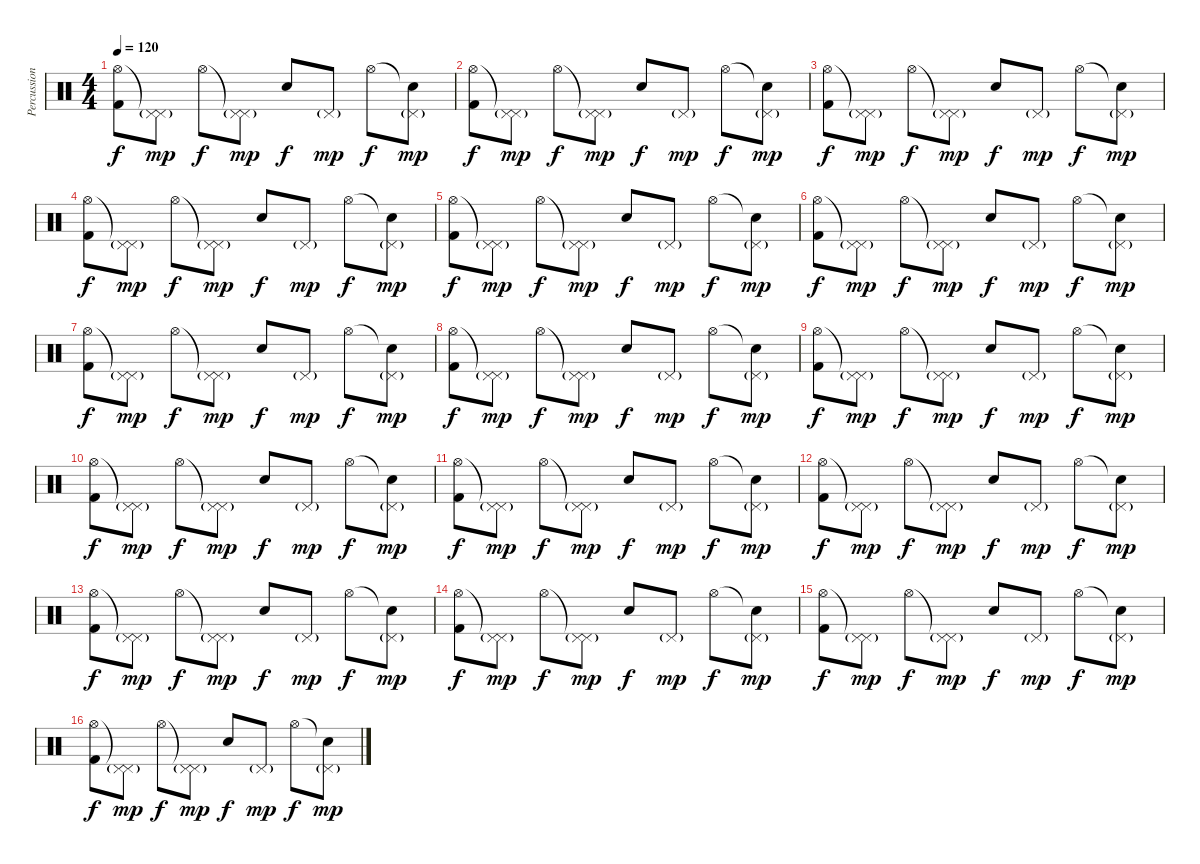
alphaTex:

\track ("Percussion" "Percussion") {instrument percussion}
\staff {score}
\articulation defaults
\ts (4 4)
\tempo 120
\clef neutral
\ks c
("Hi-Hat (open)" "Kick (hit) 2").8{dy f} ("Pedal Hi-Hat (hit)"{t} "Pedal Hi-Hat (hit)"{g}).8{dy mp} "Hi-Hat (open)".8{dy f} ("Pedal Hi-Hat (hit)"{t} "Pedal Hi-Hat (hit)"{g}).8{dy mp} "Snare (hit) 2".8{dy f} "Pedal Hi-Hat (hit)"{g}.8{dy mp} "Hi-Hat (open)".8{dy f} ("Snare (hit)"{t} "Pedal Hi-Hat (hit)"{g}).8{dy mp} |
("Hi-Hat (open)" "Kick (hit) 2").8{dy f} ("Pedal Hi-Hat (hit)"{t} "Pedal Hi-Hat (hit)"{g}).8{dy mp} "Hi-Hat (open)".8{dy f} ("Pedal Hi-Hat (hit)"{t} "Pedal Hi-Hat (hit)"{g}).8{dy mp} "Snare (hit) 2".8{dy f} "Pedal Hi-Hat (hit)"{g}.8{dy mp} "Hi-Hat (open)".8{dy f} ("Snare (hit)"{t} "Pedal Hi-Hat (hit)"{g}).8{dy mp} |
("Hi-Hat (open)" "Kick (hit) 2").8{dy f} ("Pedal Hi-Hat (hit)"{t} "Pedal Hi-Hat (hit)"{g}).8{dy mp} "Hi-Hat (open)".8{dy f} ("Pedal Hi-Hat (hit)"{t} "Pedal Hi-Hat (hit)"{g}).8{dy mp} "Snare (hit) 2".8{dy f} "Pedal Hi-Hat (hit)"{g}.8{dy mp} "Hi-Hat (open)".8{dy f} ("Snare (hit)"{t} "Pedal Hi-Hat (hit)"{g}).8{dy mp} |
("Hi-Hat (open)" "Kick (hit) 2").8{dy f} ("Pedal Hi-Hat (hit)"{t} "Pedal Hi-Hat (hit)"{g}).8{dy mp} "Hi-Hat (open)".8{dy f} ("Pedal Hi-Hat (hit)"{t} "Pedal Hi-Hat (hit)"{g}).8{dy mp} "Snare (hit) 2".8{dy f} "Pedal Hi-Hat (hit)"{g}.8{dy mp} "Hi-Hat (open)".8{dy f} ("Snare (hit)"{t} "Pedal Hi-Hat (hit)"{g}).8{dy mp} |
("Hi-Hat (open)" "Kick (hit) 2").8{dy f} ("Pedal Hi-Hat (hit)"{t} "Pedal Hi-Hat (hit)"{g}).8{dy mp} "Hi-Hat (open)".8{dy f} ("Pedal Hi-Hat (hit)"{t} "Pedal Hi-Hat (hit)"{g}).8{dy mp} "Snare (hit) 2".8{dy f} "Pedal Hi-Hat (hit)"{g}.8{dy mp} "Hi-Hat (open)".8{dy f} ("Snare (hit)"{t} "Pedal Hi-Hat (hit)"{g}).8{dy mp} |
("Hi-Hat (open)" "Kick (hit) 2").8{dy f} ("Pedal Hi-Hat (hit)"{t} "Pedal Hi-Hat (hit)"{g}).8{dy mp} "Hi-Hat (open)".8{dy f} ("Pedal Hi-Hat (hit)"{t} "Pedal Hi-Hat (hit)"{g}).8{dy mp} "Snare (hit) 2".8{dy f} "Pedal Hi-Hat (hit)"{g}.8{dy mp} "Hi-Hat (open)".8{dy f} ("Snare (hit)"{t} "Pedal Hi-Hat (hit)"{g}).8{dy mp} |
("Hi-Hat (open)" "Kick (hit) 2").8{dy f} ("Pedal Hi-Hat (hit)"{t} "Pedal Hi-Hat (hit)"{g}).8{dy mp} "Hi-Hat (open)".8{dy f} ("Pedal Hi-Hat (hit)"{t} "Pedal Hi-Hat (hit)"{g}).8{dy mp} "Snare (hit) 2".8{dy f} "Pedal Hi-Hat (hit)"{g}.8{dy mp} "Hi-Hat (open)".8{dy f} ("Snare (hit)"{t} "Pedal Hi-Hat (hit)"{g}).8{dy mp} |
("Hi-Hat (open)" "Kick (hit) 2").8{dy f} ("Pedal Hi-Hat (hit)"{t} "Pedal Hi-Hat (hit)"{g}).8{dy mp} "Hi-Hat (open)".8{dy f} ("Pedal Hi-Hat (hit)"{t} "Pedal Hi-Hat (hit)"{g}).8{dy mp} "Snare (hit) 2".8{dy f} "Pedal Hi-Hat (hit)"{g}.8{dy mp} "Hi-Hat (open)".8{dy f} ("Snare (hit)"{t} "Pedal Hi-Hat (hit)"{g}).8{dy mp} |
("Hi-Hat (open)" "Kick (hit) 2").8{dy f} ("Pedal Hi-Hat (hit)"{t} "Pedal Hi-Hat (hit)"{g}).8{dy mp} "Hi-Hat (open)".8{dy f} ("Pedal Hi-Hat (hit)"{t} "Pedal Hi-Hat (hit)"{g}).8{dy mp} "Snare (hit) 2".8{dy f} "Pedal Hi-Hat (hit)"{g}.8{dy mp} "Hi-Hat (open)".8{dy f} ("Snare (hit)"{t} "Pedal Hi-Hat (hit)"{g}).8{dy mp} |
("Hi-Hat (open)" "Kick (hit) 2").8{dy f} ("Pedal Hi-Hat (hit)"{t} "Pedal Hi-Hat (hit)"{g}).8{dy mp} "Hi-Hat (open)".8{dy f} ("Pedal Hi-Hat (hit)"{t} "Pedal Hi-Hat (hit)"{g}).8{dy mp} "Snare (hit) 2".8{dy f} "Pedal Hi-Hat (hit)"{g}.8{dy mp} "Hi-Hat (open)".8{dy f} ("Snare (hit)"{t} "Pedal Hi-Hat (hit)"{g}).8{dy mp} |
("Hi-Hat (open)" "Kick (hit) 2").8{dy f} ("Pedal Hi-Hat (hit)"{t} "Pedal Hi-Hat (hit)"{g}).8{dy mp} "Hi-Hat (open)".8{dy f} ("Pedal Hi-Hat (hit)"{t} "Pedal Hi-Hat (hit)"{g}).8{dy mp} "Snare (hit) 2".8{dy f} "Pedal Hi-Hat (hit)"{g}.8{dy mp} "Hi-Hat (open)".8{dy f} ("Snare (hit)"{t} "Pedal Hi-Hat (hit)"{g}).8{dy mp} |
("Hi-Hat (open)" "Kick (hit) 2").8{dy f} ("Pedal Hi-Hat (hit)"{t} "Pedal Hi-Hat (hit)"{g}).8{dy mp} "Hi-Hat (open)".8{dy f} ("Pedal Hi-Hat (hit)"{t} "Pedal Hi-Hat (hit)"{g}).8{dy mp} "Snare (hit) 2".8{dy f} "Pedal Hi-Hat (hit)"{g}.8{dy mp} "Hi-Hat (open)".8{dy f} ("Snare (hit)"{t} "Pedal Hi-Hat (hit)"{g}).8{dy mp} |
("Hi-Hat (open)" "Kick (hit) 2").8{dy f} ("Pedal Hi-Hat (hit)"{t} "Pedal Hi-Hat (hit)"{g}).8{dy mp} "Hi-Hat (open)".8{dy f} ("Pedal Hi-Hat (hit)"{t} "Pedal Hi-Hat (hit)"{g}).8{dy mp} "Snare (hit) 2".8{dy f} "Pedal Hi-Hat (hit)"{g}.8{dy mp} "Hi-Hat (open)".8{dy f} ("Snare (hit)"{t} "Pedal Hi-Hat (hit)"{g}).8{dy mp} |
("Hi-Hat (open)" "Kick (hit) 2").8{dy f} ("Pedal Hi-Hat (hit)"{t} "Pedal Hi-Hat (hit)"{g}).8{dy mp} "Hi-Hat (open)".8{dy f} ("Pedal Hi-Hat (hit)"{t} "Pedal Hi-Hat (hit)"{g}).8{dy mp} "Snare (hit) 2".8{dy f} "Pedal Hi-Hat (hit)"{g}.8{dy mp} "Hi-Hat (open)".8{dy f} ("Snare (hit)"{t} "Pedal Hi-Hat (hit)"{g}).8{dy mp} |
("Hi-Hat (open)" "Kick (hit) 2").8{dy f} ("Pedal Hi-Hat (hit)"{t} "Pedal Hi-Hat (hit)"{g}).8{dy mp} "Hi-Hat (open)".8{dy f} ("Pedal Hi-Hat (hit)"{t} "Pedal Hi-Hat (hit)"{g}).8{dy mp} "Snare (hit) 2".8{dy f} "Pedal Hi-Hat (hit)"{g}.8{dy mp} "Hi-Hat (open)".8{dy f} ("Snare (hit)"{t} "Pedal Hi-Hat (hit)"{g}).8{dy mp} |
("Hi-Hat (open)" "Kick (hit) 2").8{dy f} ("Pedal Hi-Hat (hit)"{t} "Pedal Hi-Hat (hit)"{g}).8{dy mp} "Hi-Hat (open)".8{dy f} ("Pedal Hi-Hat (hit)"{t} "Pedal Hi-Hat (hit)"{g}).8{dy mp} "Snare (hit) 2".8{dy f} "Pedal Hi-Hat (hit)"{g}.8{dy mp} "Hi-Hat (open)".8{dy f} ("Snare (hit)"{t} "Pedal Hi-Hat (hit)"{g}).8{dy mp}
